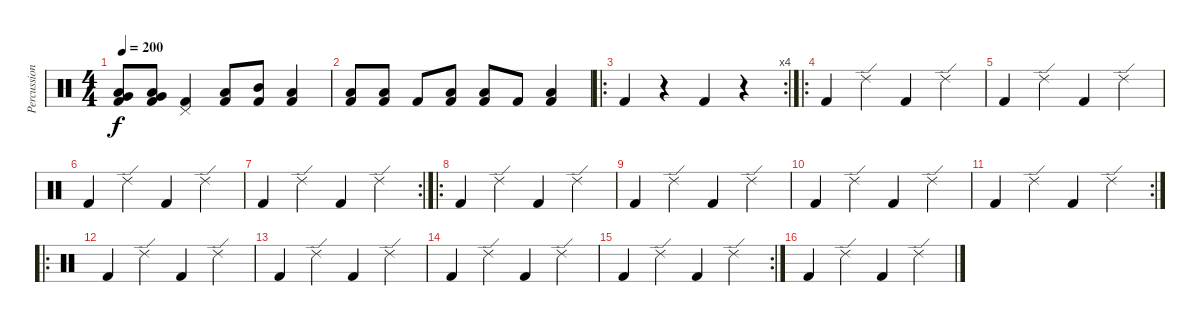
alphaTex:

\track ("Percussion" "Percussion") {instrument percussion}
\staff {score}
\articulation defaults
\ts (4 4)
\tempo 200
\clef neutral
\ks c
("Very Low Tom (hit)" "Low Floor Tom (hit)" "Kick (hit) 2").8{dy f} ("Very Low Tom (hit)" "Low Floor Tom (hit)" "Kick (hit) 2").8 ("Pedal Hi-Hat (hit)" "Kick (hit) 2").4 ("Low Tom (hit)" "Kick (hit) 2").8 ("Mid Tom (hit)" "Kick (hit) 2").8 ("Low Tom (hit)" "Kick (hit) 2").4 |
("Low Floor Tom (hit)" "Kick (hit) 2").8 ("Low Floor Tom (hit)" "Kick (hit) 2").8 "Kick (hit) 2".8 ("Low Floor Tom (hit)" "Kick (hit) 2").8 ("Low Floor Tom (hit)" "Kick (hit) 2").8 "Kick (hit) 2".8 ("Low Floor Tom (hit)" "Kick (hit) 2").4 |
\ro
\rc 4 "Kick (hit) 2".4
r.4 "Kick (hit) 2".4 r.4 |
\ro "Kick (hit) 2".4 "Ride (edge) 2".4 "Kick (hit) 2".4 "Ride (edge) 2".4
|
"Kick (hit) 2".4 "Ride (edge) 2".4 "Kick (hit) 2".4 "Ride (edge) 2".4 |
"Kick (hit) 2".4 "Ride (edge) 2".4 "Kick (hit) 2".4 "Ride (edge) 2".4 |
\rc 2 "Kick (hit) 2".4 "Ride (edge) 2".4 "Kick (hit) 2".4 "Ride (edge) 2".4
|
\ro "Kick (hit) 2".4 "Ride (edge) 2".4 "Kick (hit) 2".4 "Ride (edge) 2".4
|
"Kick (hit) 2".4 "Ride (edge) 2".4 "Kick (hit) 2".4 "Ride (edge) 2".4 |
"Kick (hit) 2".4 "Ride (edge) 2".4 "Kick (hit) 2".4 "Ride (edge) 2".4 |
\rc 2 "Kick (hit) 2".4 "Ride (edge) 2".4 "Kick (hit) 2".4 "Ride (edge) 2".4
|
\ro "Kick (hit) 2".4 "Ride (edge) 2".4 "Kick (hit) 2".4 "Ride (edge) 2".4
|
"Kick (hit) 2".4 "Ride (edge) 2".4 "Kick (hit) 2".4 "Ride (edge) 2".4 |
"Kick (hit) 2".4 "Ride (edge) 2".4 "Kick (hit) 2".4 "Ride (edge) 2".4 |
\rc 2 "Kick (hit) 2".4 "Ride (edge) 2".4 "Kick (hit) 2".4 "Ride (edge) 2".4
|
"Kick (hit) 2".4 "Ride (edge) 2".4 "Kick (hit) 2".4 "Ride (edge) 2".4
